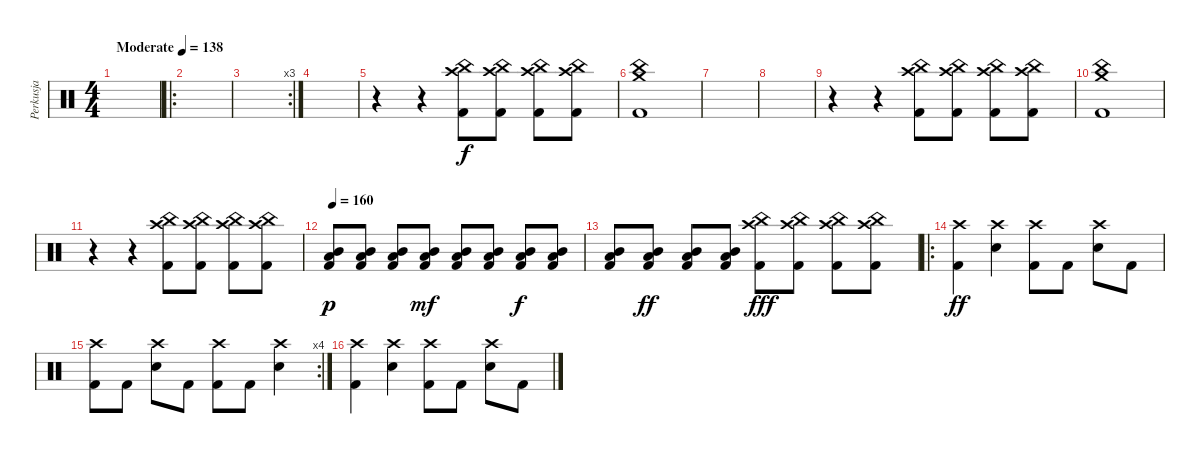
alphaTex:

\track ("Perkusja" "Perkusja") {instrument percussion}
\staff {score}
\articulation defaults
\ts (4 4)
\tempo (138 "Moderate")
\clef neutral
\ks c
|
\ro
|
\rc 3
|
|
r.4 r.4 ("Crash high (hit)" "China (hit)" "Kick (hit) 2").8 ("Crash high (hit)" "China (hit)" "Kick (hit) 2").8 ("Crash high (hit)" "China (hit)" "Kick (hit) 2").8 ("Crash high (hit)" "China (hit)" "Kick (hit) 2").8 |
("Crash medium (hit)" "China (hit)" "Kick (hit) 2").1 |
|
|
r.4 r.4 ("Crash high (hit)" "China (hit)" "Kick (hit) 2").8 ("Crash high (hit)" "China (hit)" "Kick (hit) 2").8 ("Crash high (hit)" "China (hit)" "Kick (hit) 2").8 ("Crash high (hit)" "China (hit)" "Kick (hit) 2").8 |
("Crash medium (hit)" "China (hit)" "Kick (hit) 2").1 |
r.4 r.4 ("Crash high (hit)" "China (hit)" "Kick (hit) 2").8 ("Crash high (hit)" "China (hit)" "Kick (hit) 2").8 ("Crash high (hit)" "China (hit)" "Kick (hit) 2").8 ("Crash high (hit)" "China (hit)" "Kick (hit) 2").8 |
\tempo 160
("Mid Tom (hit)" "Low Floor Tom (hit)" "Kick (hit) 2").8{dy p} ("Mid Tom (hit)" "Low Floor Tom (hit)" "Kick (hit) 2").8 ("Mid Tom (hit)" "Low Floor Tom (hit)" "Kick (hit) 2").8 ("Mid Tom (hit)" "Low Floor Tom (hit)" "Kick (hit) 2").8{dy mf} ("Mid Tom (hit)" "Low Floor Tom (hit)" "Kick (hit) 2").8 ("Mid Tom (hit)" "Low Floor Tom (hit)" "Kick (hit) 2").8 ("Mid Tom (hit)" "Low Floor Tom (hit)" "Kick (hit) 2").8{dy f} ("Mid Tom (hit)" "Low Floor Tom (hit)" "Kick (hit) 2").8 |
("Mid Tom (hit)" "Low Floor Tom (hit)" "Kick (hit) 2").8 ("Mid Tom (hit)" "Low Floor Tom (hit)" "Kick (hit) 2").8{dy ff} ("Mid Tom (hit)" "Low Floor Tom (hit)" "Kick (hit) 2").8 ("Mid Tom (hit)" "Low Floor Tom (hit)" "Kick (hit) 2").8 ("Crash high (hit)" "China (hit)" "Kick (hit) 2").8{dy fff} ("Crash high (hit)" "China (hit)" "Kick (hit) 2").8 ("Crash high (hit)" "China (hit)" "Kick (hit) 2").8 ("Crash high (hit)" "China (hit)" "Kick (hit) 2").8 |
\ro
("Crash high (hit)" "Kick (hit) 2").4{dy ff} ("Crash high (hit)" "Snare (hit) 2").4 ("Crash high (hit)" "Kick (hit) 2").8 "Kick (hit) 2".8 ("Crash high (hit)" "Snare (hit) 2").8 "Kick (hit) 2".8 |
\rc 4
("Crash high (hit)" "Kick (hit) 2").8 "Kick (hit) 2".8 ("Crash high (hit)" "Snare (hit) 2").8 "Kick (hit) 2".8 ("Crash high (hit)" "Kick (hit) 2").8 "Kick (hit) 2".8 ("Crash high (hit)" "Snare (hit) 2").4 |
("Crash high (hit)" "Kick (hit) 2").4 ("Crash high (hit)" "Snare (hit) 2").4 ("Crash high (hit)" "Kick (hit) 2").8 "Kick (hit) 2".8 ("Crash high (hit)" "Snare (hit) 2").8 "Kick (hit) 2".8
